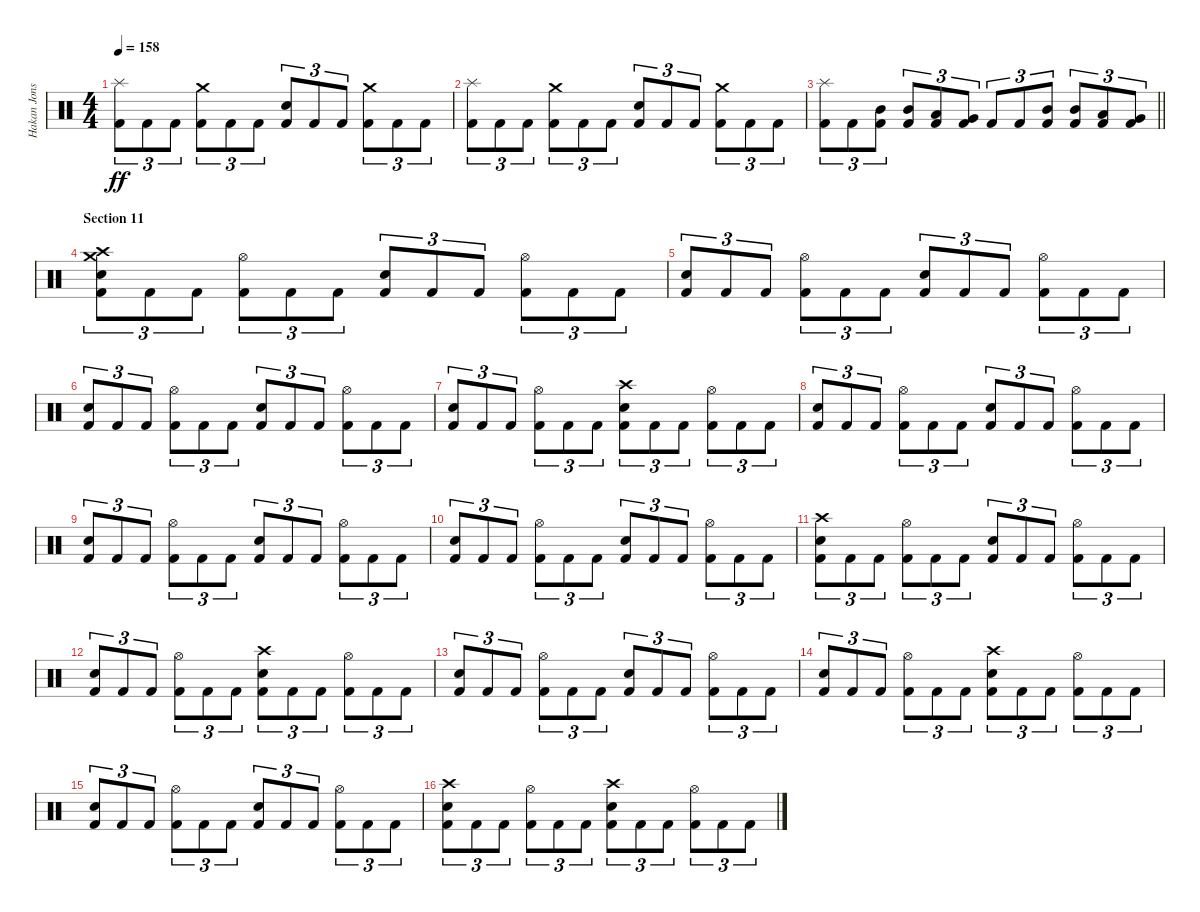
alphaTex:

\track ("Hakan Jonsson" "Hakan Jons") {instrument percussion}
\staff {score}
\articulation defaults
\ts (4 4)
\tempo 158
\clef neutral
\ks c
("Splash (hit)" "Kick (hit) 2").8{tu (3 2) dy ff} "Kick (hit) 2".8{tu (3 2)} "Kick (hit) 2".8{tu (3 2)} ("Crash medium (hit)" "Kick (hit) 2").8{tu (3 2)} "Kick (hit) 2".8{tu (3 2)} "Kick (hit) 2".8{tu (3 2)} ("Electric Snare (hit)" "Kick (hit) 2").8{tu (3 2)} "Kick (hit) 2".8{tu (3 2)} "Kick (hit) 2".8{tu (3 2)} ("Crash medium (hit)" "Kick (hit) 2").8{tu (3 2)} "Kick (hit) 2".8{tu (3 2)} "Kick (hit) 2".8{tu (3 2)} |
("Splash (hit)" "Kick (hit) 2").8{tu (3 2)} "Kick (hit) 2".8{tu (3 2)} "Kick (hit) 2".8{tu (3 2)} ("Crash medium (hit)" "Kick (hit) 2").8{tu (3 2)} "Kick (hit) 2".8{tu (3 2)} "Kick (hit) 2".8{tu (3 2)} ("Electric Snare (hit)" "Kick (hit) 2").8{tu (3 2)} "Kick (hit) 2".8{tu (3 2)} "Kick (hit) 2".8{tu (3 2)} ("Crash medium (hit)" "Kick (hit) 2").8{tu (3 2)} "Kick (hit) 2".8{tu (3 2)} "Kick (hit) 2".8{tu (3 2)} |
\barLineRight lightlight
("Splash (hit)" "Kick (hit) 2").8{tu (3 2)} "Kick (hit) 2".8{tu (3 2)} ("Mid Tom (hit)" "Kick (hit) 2").8{tu (3 2)} ("Mid Tom (hit)" "Kick (hit) 2").8{tu (3 2)} ("Low Tom (hit)" "Kick (hit) 2").8{tu (3 2)} ("Very Low Tom (hit)" "Kick (hit) 2").8{tu (3 2)} "Kick (hit) 2".8{tu (3 2)} "Kick (hit) 2".8{tu (3 2)} ("Mid Tom (hit)" "Kick (hit) 2").8{tu (3 2)} ("Mid Tom (hit)" "Kick (hit) 2").8{tu (3 2)} ("Low Tom (hit)" "Kick (hit) 2").8{tu (3 2)} ("Very Low Tom (hit)" "Kick (hit) 2").8{tu (3 2)} |
\section ("" "Section 11")
("Crash medium (hit)" "Crash high (hit)" "Electric Snare (hit)" "Kick (hit) 2").8{tu (3 2)} "Kick (hit) 2".8{tu (3 2)} "Kick (hit) 2".8{tu (3 2)} ("Hi-Hat (open)" "Kick (hit) 2").8{tu (3 2)} "Kick (hit) 2".8{tu (3 2)} "Kick (hit) 2".8{tu (3 2)} ("Electric Snare (hit)" "Kick (hit) 2").8{tu (3 2)} "Kick (hit) 2".8{tu (3 2)} "Kick (hit) 2".8{tu (3 2)} ("Hi-Hat (open)" "Kick (hit) 2").8{tu (3 2)} "Kick (hit) 2".8{tu (3 2)} "Kick (hit) 2".8{tu (3 2)} |
("Electric Snare (hit)" "Kick (hit) 2").8{tu (3 2)} "Kick (hit) 2".8{tu (3 2)} "Kick (hit) 2".8{tu (3 2)} ("Hi-Hat (open)" "Kick (hit) 2").8{tu (3 2)} "Kick (hit) 2".8{tu (3 2)} "Kick (hit) 2".8{tu (3 2)} ("Electric Snare (hit)" "Kick (hit) 2").8{tu (3 2)} "Kick (hit) 2".8{tu (3 2)} "Kick (hit) 2".8{tu (3 2)} ("Hi-Hat (open)" "Kick (hit) 2").8{tu (3 2)} "Kick (hit) 2".8{tu (3 2)} "Kick (hit) 2".8{tu (3 2)} |
("Electric Snare (hit)" "Kick (hit) 2").8{tu (3 2)} "Kick (hit) 2".8{tu (3 2)} "Kick (hit) 2".8{tu (3 2)} ("Hi-Hat (open)" "Kick (hit) 2").8{tu (3 2)} "Kick (hit) 2".8{tu (3 2)} "Kick (hit) 2".8{tu (3 2)} ("Electric Snare (hit)" "Kick (hit) 2").8{tu (3 2)} "Kick (hit) 2".8{tu (3 2)} "Kick (hit) 2".8{tu (3 2)} ("Hi-Hat (open)" "Kick (hit) 2").8{tu (3 2)} "Kick (hit) 2".8{tu (3 2)} "Kick (hit) 2".8{tu (3 2)} |
("Electric Snare (hit)" "Kick (hit) 2").8{tu (3 2)} "Kick (hit) 2".8{tu (3 2)} "Kick (hit) 2".8{tu (3 2)} ("Hi-Hat (open)" "Kick (hit) 2").8{tu (3 2)} "Kick (hit) 2".8{tu (3 2)} "Kick (hit) 2".8{tu (3 2)} ("Crash high (hit)" "Electric Snare (hit)" "Kick (hit) 2").8{tu (3 2)} "Kick (hit) 2".8{tu (3 2)} "Kick (hit) 2".8{tu (3 2)} ("Hi-Hat (open)" "Kick (hit) 2").8{tu (3 2)} "Kick (hit) 2".8{tu (3 2)} "Kick (hit) 2".8{tu (3 2)} |
("Electric Snare (hit)" "Kick (hit) 2").8{tu (3 2)} "Kick (hit) 2".8{tu (3 2)} "Kick (hit) 2".8{tu (3 2)} ("Hi-Hat (open)" "Kick (hit) 2").8{tu (3 2)} "Kick (hit) 2".8{tu (3 2)} "Kick (hit) 2".8{tu (3 2)} ("Electric Snare (hit)" "Kick (hit) 2").8{tu (3 2)} "Kick (hit) 2".8{tu (3 2)} "Kick (hit) 2".8{tu (3 2)} ("Hi-Hat (open)" "Kick (hit) 2").8{tu (3 2)} "Kick (hit) 2".8{tu (3 2)} "Kick (hit) 2".8{tu (3 2)} |
("Electric Snare (hit)" "Kick (hit) 2").8{tu (3 2)} "Kick (hit) 2".8{tu (3 2)} "Kick (hit) 2".8{tu (3 2)} ("Hi-Hat (open)" "Kick (hit) 2").8{tu (3 2)} "Kick (hit) 2".8{tu (3 2)} "Kick (hit) 2".8{tu (3 2)} ("Electric Snare (hit)" "Kick (hit) 2").8{tu (3 2)} "Kick (hit) 2".8{tu (3 2)} "Kick (hit) 2".8{tu (3 2)} ("Hi-Hat (open)" "Kick (hit) 2").8{tu (3 2)} "Kick (hit) 2".8{tu (3 2)} "Kick (hit) 2".8{tu (3 2)} |
("Electric Snare (hit)" "Kick (hit) 2").8{tu (3 2)} "Kick (hit) 2".8{tu (3 2)} "Kick (hit) 2".8{tu (3 2)} ("Hi-Hat (open)" "Kick (hit) 2").8{tu (3 2)} "Kick (hit) 2".8{tu (3 2)} "Kick (hit) 2".8{tu (3 2)} ("Electric Snare (hit)" "Kick (hit) 2").8{tu (3 2)} "Kick (hit) 2".8{tu (3 2)} "Kick (hit) 2".8{tu (3 2)} ("Hi-Hat (open)" "Kick (hit) 2").8{tu (3 2)} "Kick (hit) 2".8{tu (3 2)} "Kick (hit) 2".8{tu (3 2)} |
("Crash high (hit)" "Electric Snare (hit)" "Kick (hit) 2").8{tu (3 2)} "Kick (hit) 2".8{tu (3 2)} "Kick (hit) 2".8{tu (3 2)} ("Hi-Hat (open)" "Kick (hit) 2").8{tu (3 2)} "Kick (hit) 2".8{tu (3 2)} "Kick (hit) 2".8{tu (3 2)} ("Electric Snare (hit)" "Kick (hit) 2").8{tu (3 2)} "Kick (hit) 2".8{tu (3 2)} "Kick (hit) 2".8{tu (3 2)} ("Hi-Hat (open)" "Kick (hit) 2").8{tu (3 2)} "Kick (hit) 2".8{tu (3 2)} "Kick (hit) 2".8{tu (3 2)} |
("Electric Snare (hit)" "Kick (hit) 2").8{tu (3 2)} "Kick (hit) 2".8{tu (3 2)} "Kick (hit) 2".8{tu (3 2)} ("Hi-Hat (open)" "Kick (hit) 2").8{tu (3 2)} "Kick (hit) 2".8{tu (3 2)} "Kick (hit) 2".8{tu (3 2)} ("Crash high (hit)" "Electric Snare (hit)" "Kick (hit) 2").8{tu (3 2)} "Kick (hit) 2".8{tu (3 2)} "Kick (hit) 2".8{tu (3 2)} ("Hi-Hat (open)" "Kick (hit) 2").8{tu (3 2)} "Kick (hit) 2".8{tu (3 2)} "Kick (hit) 2".8{tu (3 2)} |
("Electric Snare (hit)" "Kick (hit) 2").8{tu (3 2)} "Kick (hit) 2".8{tu (3 2)} "Kick (hit) 2".8{tu (3 2)} ("Hi-Hat (open)" "Kick (hit) 2").8{tu (3 2)} "Kick (hit) 2".8{tu (3 2)} "Kick (hit) 2".8{tu (3 2)} ("Electric Snare (hit)" "Kick (hit) 2").8{tu (3 2)} "Kick (hit) 2".8{tu (3 2)} "Kick (hit) 2".8{tu (3 2)} ("Hi-Hat (open)" "Kick (hit) 2").8{tu (3 2)} "Kick (hit) 2".8{tu (3 2)} "Kick (hit) 2".8{tu (3 2)} |
("Electric Snare (hit)" "Kick (hit) 2").8{tu (3 2)} "Kick (hit) 2".8{tu (3 2)} "Kick (hit) 2".8{tu (3 2)} ("Hi-Hat (open)" "Kick (hit) 2").8{tu (3 2)} "Kick (hit) 2".8{tu (3 2)} "Kick (hit) 2".8{tu (3 2)} ("Crash high (hit)" "Electric Snare (hit)" "Kick (hit) 2").8{tu (3 2)} "Kick (hit) 2".8{tu (3 2)} "Kick (hit) 2".8{tu (3 2)} ("Hi-Hat (open)" "Kick (hit) 2").8{tu (3 2)} "Kick (hit) 2".8{tu (3 2)} "Kick (hit) 2".8{tu (3 2)} |
("Electric Snare (hit)" "Kick (hit) 2").8{tu (3 2)} "Kick (hit) 2".8{tu (3 2)} "Kick (hit) 2".8{tu (3 2)} ("Hi-Hat (open)" "Kick (hit) 2").8{tu (3 2)} "Kick (hit) 2".8{tu (3 2)} "Kick (hit) 2".8{tu (3 2)} ("Electric Snare (hit)" "Kick (hit) 2").8{tu (3 2)} "Kick (hit) 2".8{tu (3 2)} "Kick (hit) 2".8{tu (3 2)} ("Hi-Hat (open)" "Kick (hit) 2").8{tu (3 2)} "Kick (hit) 2".8{tu (3 2)} "Kick (hit) 2".8{tu (3 2)} |
("Crash high (hit)" "Electric Snare (hit)" "Kick (hit) 2").8{tu (3 2)} "Kick (hit) 2".8{tu (3 2)} "Kick (hit) 2".8{tu (3 2)} ("Hi-Hat (open)" "Kick (hit) 2").8{tu (3 2)} "Kick (hit) 2".8{tu (3 2)} "Kick (hit) 2".8{tu (3 2)} ("Crash high (hit)" "Electric Snare (hit)" "Kick (hit) 2").8{tu (3 2)} "Kick (hit) 2".8{tu (3 2)} "Kick (hit) 2".8{tu (3 2)} ("Hi-Hat (open)" "Kick (hit) 2").8{tu (3 2)} "Kick (hit) 2".8{tu (3 2)} "Kick (hit) 2".8{tu (3 2)}
